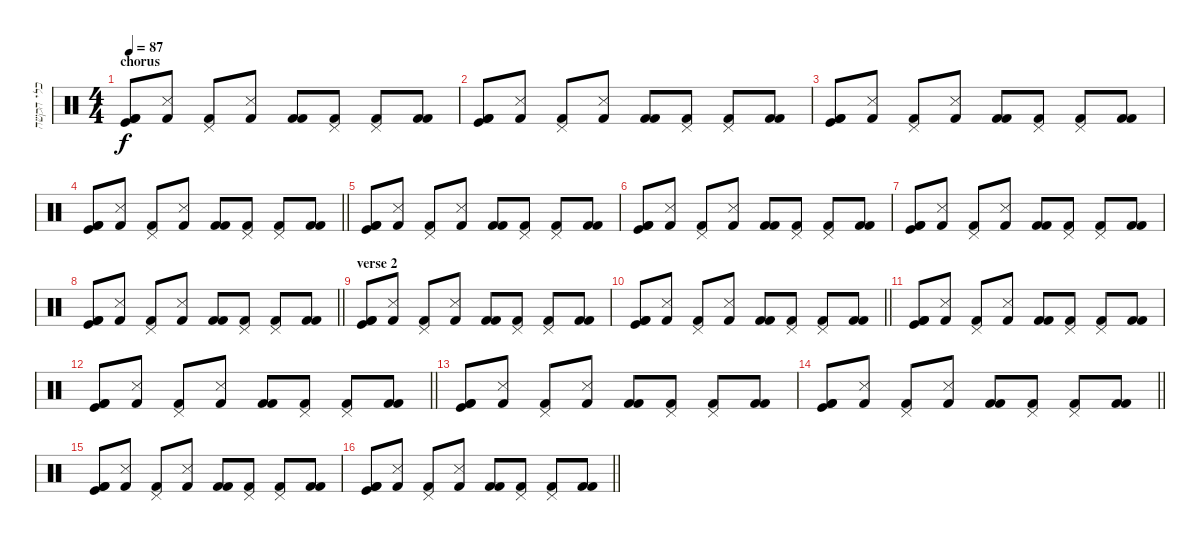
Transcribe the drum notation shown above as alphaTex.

\track ("כלי הקשה" "כלי הקשה") {instrument percussion}
\staff {score}
\articulation defaults
\ts (4 4)
\section ("" "chorus")
\tempo 87
\clef neutral
\ks c
("Kick (hit) 2" "Kick (hit)" "Kick (hit) 2").8{dy f} ("Snare (side stick) 3" "Kick (hit) 2").8 ("Pedal Hi-Hat (hit)" "Kick (hit) 2").8 ("Snare (side stick) 3" "Kick (hit) 2").8 ("Kick (hit) 2" "Kick (hit) 2").8 ("Pedal Hi-Hat (hit)" "Kick (hit) 2").8 ("Pedal Hi-Hat (hit)" "Kick (hit) 2").8 ("Kick (hit) 2" "Kick (hit) 2").8 |
("Kick (hit) 2" "Kick (hit)" "Kick (hit) 2").8 ("Snare (side stick) 3" "Kick (hit) 2").8 ("Pedal Hi-Hat (hit)" "Kick (hit) 2").8 ("Snare (side stick) 3" "Kick (hit) 2").8 ("Kick (hit) 2" "Kick (hit) 2").8 ("Pedal Hi-Hat (hit)" "Kick (hit) 2").8 ("Pedal Hi-Hat (hit)" "Kick (hit) 2").8 ("Kick (hit) 2" "Kick (hit) 2").8 |
("Kick (hit) 2" "Kick (hit)" "Kick (hit) 2").8 ("Snare (side stick) 3" "Kick (hit) 2").8 ("Pedal Hi-Hat (hit)" "Kick (hit) 2").8 ("Snare (side stick) 3" "Kick (hit) 2").8 ("Kick (hit) 2" "Kick (hit) 2").8 ("Pedal Hi-Hat (hit)" "Kick (hit) 2").8 ("Pedal Hi-Hat (hit)" "Kick (hit) 2").8 ("Kick (hit) 2" "Kick (hit) 2").8 |
\barLineRight lightlight
("Kick (hit) 2" "Kick (hit)" "Kick (hit) 2").8 ("Snare (side stick) 3" "Kick (hit) 2").8 ("Pedal Hi-Hat (hit)" "Kick (hit) 2").8 ("Snare (side stick) 3" "Kick (hit) 2").8 ("Kick (hit) 2" "Kick (hit) 2").8 ("Pedal Hi-Hat (hit)" "Kick (hit) 2").8 ("Pedal Hi-Hat (hit)" "Kick (hit) 2").8 ("Kick (hit) 2" "Kick (hit) 2").8 |
("Kick (hit) 2" "Kick (hit)" "Kick (hit) 2").8 ("Snare (side stick) 3" "Kick (hit) 2").8 ("Pedal Hi-Hat (hit)" "Kick (hit) 2").8 ("Snare (side stick) 3" "Kick (hit) 2").8 ("Kick (hit) 2" "Kick (hit) 2").8 ("Pedal Hi-Hat (hit)" "Kick (hit) 2").8 ("Pedal Hi-Hat (hit)" "Kick (hit) 2").8 ("Kick (hit) 2" "Kick (hit) 2").8 |
("Kick (hit) 2" "Kick (hit)" "Kick (hit) 2").8 ("Snare (side stick) 3" "Kick (hit) 2").8 ("Pedal Hi-Hat (hit)" "Kick (hit) 2").8 ("Snare (side stick) 3" "Kick (hit) 2").8 ("Kick (hit) 2" "Kick (hit) 2").8 ("Pedal Hi-Hat (hit)" "Kick (hit) 2").8 ("Pedal Hi-Hat (hit)" "Kick (hit) 2").8 ("Kick (hit) 2" "Kick (hit) 2").8 |
("Kick (hit) 2" "Kick (hit)" "Kick (hit) 2").8 ("Snare (side stick) 3" "Kick (hit) 2").8 ("Pedal Hi-Hat (hit)" "Kick (hit) 2").8 ("Snare (side stick) 3" "Kick (hit) 2").8 ("Kick (hit) 2" "Kick (hit) 2").8 ("Pedal Hi-Hat (hit)" "Kick (hit) 2").8 ("Pedal Hi-Hat (hit)" "Kick (hit) 2").8 ("Kick (hit) 2" "Kick (hit) 2").8 |
\barLineRight lightlight
("Kick (hit) 2" "Kick (hit)" "Kick (hit) 2").8 ("Snare (side stick) 3" "Kick (hit) 2").8 ("Pedal Hi-Hat (hit)" "Kick (hit) 2").8 ("Snare (side stick) 3" "Kick (hit) 2").8 ("Kick (hit) 2" "Kick (hit) 2").8 ("Pedal Hi-Hat (hit)" "Kick (hit) 2").8 ("Pedal Hi-Hat (hit)" "Kick (hit) 2").8 ("Kick (hit) 2" "Kick (hit) 2").8 |
\section ("" "verse 2")
("Kick (hit) 2" "Kick (hit)" "Kick (hit) 2").8 ("Snare (side stick) 3" "Kick (hit) 2").8 ("Pedal Hi-Hat (hit)" "Kick (hit) 2").8 ("Snare (side stick) 3" "Kick (hit) 2").8 ("Kick (hit) 2" "Kick (hit) 2").8 ("Pedal Hi-Hat (hit)" "Kick (hit) 2").8 ("Pedal Hi-Hat (hit)" "Kick (hit) 2").8 ("Kick (hit) 2" "Kick (hit) 2").8 |
\barLineRight lightlight
("Kick (hit) 2" "Kick (hit)" "Kick (hit) 2").8 ("Snare (side stick) 3" "Kick (hit) 2").8 ("Pedal Hi-Hat (hit)" "Kick (hit) 2").8 ("Snare (side stick) 3" "Kick (hit) 2").8 ("Kick (hit) 2" "Kick (hit) 2").8 ("Pedal Hi-Hat (hit)" "Kick (hit) 2").8 ("Pedal Hi-Hat (hit)" "Kick (hit) 2").8 ("Kick (hit) 2" "Kick (hit) 2").8 |
("Kick (hit) 2" "Kick (hit)" "Kick (hit) 2").8 ("Snare (side stick) 3" "Kick (hit) 2").8 ("Pedal Hi-Hat (hit)" "Kick (hit) 2").8 ("Snare (side stick) 3" "Kick (hit) 2").8 ("Kick (hit) 2" "Kick (hit) 2").8 ("Pedal Hi-Hat (hit)" "Kick (hit) 2").8 ("Pedal Hi-Hat (hit)" "Kick (hit) 2").8 ("Kick (hit) 2" "Kick (hit) 2").8 |
\barLineRight lightlight
("Kick (hit) 2" "Kick (hit)" "Kick (hit) 2").8 ("Snare (side stick) 3" "Kick (hit) 2").8 ("Pedal Hi-Hat (hit)" "Kick (hit) 2").8 ("Snare (side stick) 3" "Kick (hit) 2").8 ("Kick (hit) 2" "Kick (hit) 2").8 ("Pedal Hi-Hat (hit)" "Kick (hit) 2").8 ("Pedal Hi-Hat (hit)" "Kick (hit) 2").8 ("Kick (hit) 2" "Kick (hit) 2").8 |
("Kick (hit) 2" "Kick (hit)" "Kick (hit) 2").8 ("Snare (side stick) 3" "Kick (hit) 2").8 ("Pedal Hi-Hat (hit)" "Kick (hit) 2").8 ("Snare (side stick) 3" "Kick (hit) 2").8 ("Kick (hit) 2" "Kick (hit) 2").8 ("Pedal Hi-Hat (hit)" "Kick (hit) 2").8 ("Pedal Hi-Hat (hit)" "Kick (hit) 2").8 ("Kick (hit) 2" "Kick (hit) 2").8 |
\barLineRight lightlight
("Kick (hit) 2" "Kick (hit)" "Kick (hit) 2").8 ("Snare (side stick) 3" "Kick (hit) 2").8 ("Pedal Hi-Hat (hit)" "Kick (hit) 2").8 ("Snare (side stick) 3" "Kick (hit) 2").8 ("Kick (hit) 2" "Kick (hit) 2").8 ("Pedal Hi-Hat (hit)" "Kick (hit) 2").8 ("Pedal Hi-Hat (hit)" "Kick (hit) 2").8 ("Kick (hit) 2" "Kick (hit) 2").8 |
("Kick (hit) 2" "Kick (hit)" "Kick (hit) 2").8 ("Snare (side stick) 3" "Kick (hit) 2").8 ("Pedal Hi-Hat (hit)" "Kick (hit) 2").8 ("Snare (side stick) 3" "Kick (hit) 2").8 ("Kick (hit) 2" "Kick (hit) 2").8 ("Pedal Hi-Hat (hit)" "Kick (hit) 2").8 ("Pedal Hi-Hat (hit)" "Kick (hit) 2").8 ("Kick (hit) 2" "Kick (hit) 2").8 |
\barLineRight lightlight
("Kick (hit) 2" "Kick (hit)" "Kick (hit) 2").8 ("Snare (side stick) 3" "Kick (hit) 2").8 ("Pedal Hi-Hat (hit)" "Kick (hit) 2").8 ("Snare (side stick) 3" "Kick (hit) 2").8 ("Kick (hit) 2" "Kick (hit) 2").8 ("Pedal Hi-Hat (hit)" "Kick (hit) 2").8 ("Pedal Hi-Hat (hit)" "Kick (hit) 2").8 ("Kick (hit) 2" "Kick (hit) 2").8
